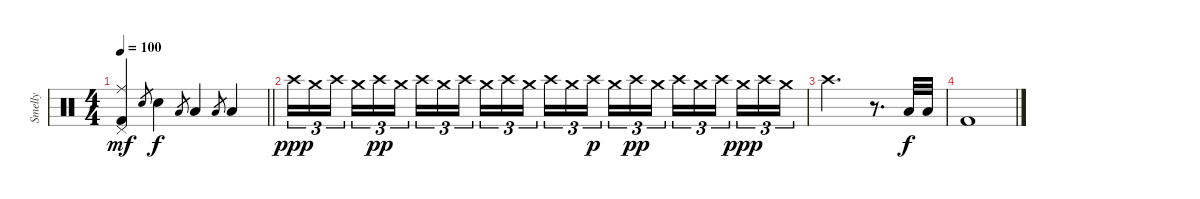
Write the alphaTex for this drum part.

\track ("Smelly" "Smelly") {instrument percussion}
\staff {score}
\articulation defaults
\ts (4 4)
\tempo 100
\clef neutral
\barLineRight lightlight
\ks c
("Pedal Hi-Hat (hit)" "Ride (middle)" "Kick (hit) 2").4{dy mf} "Electric Snare (hit)".8{gr} "Electric Snare (hit)".4{dy f} "Low Tom (hit)".8{gr} "Low Tom (hit)".4 "Low Floor Tom (hit)".8{gr} "Low Floor Tom (hit)".4 |
"Crash high (hit)".16{tu (3 2) dy ppp} "Crash medium (hit)".16{tu (3 2)} "Crash high (hit)".16{tu (3 2) beam splitsecondary} "Crash medium (hit)".16{tu (3 2)} "Crash high (hit)".16{tu (3 2) dy pp} "Crash medium (hit)".16{tu (3 2)} "Crash high (hit)".16{tu (3 2)} "Crash medium (hit)".16{tu (3 2)} "Crash high (hit)".16{tu (3 2) beam splitsecondary} "Crash medium (hit)".16{tu (3 2)} "Crash high (hit)".16{tu (3 2)} "Crash medium (hit)".16{tu (3 2)} "Crash high (hit)".16{tu (3 2)} "Crash medium (hit)".16{tu (3 2)} "Crash high (hit)".16{tu (3 2) dy p beam splitsecondary} "Crash medium (hit)".16{tu (3 2)} "Crash high (hit)".16{tu (3 2) dy pp} "Crash medium (hit)".16{tu (3 2)} "Crash high (hit)".16{tu (3 2)} "Crash medium (hit)".16{tu (3 2)} "Crash high (hit)".16{tu (3 2) beam splitsecondary} "Crash medium (hit)".16{tu (3 2) dy ppp} "Crash high (hit)".16{tu (3 2)} "Crash medium (hit)".16{tu (3 2)} |
"Crash high (hit)".2{d} r.8{d} "Low Floor Tom (hit)".32{dy f} "Low Floor Tom (hit)".32 |
"Kick (hit) 2".1
